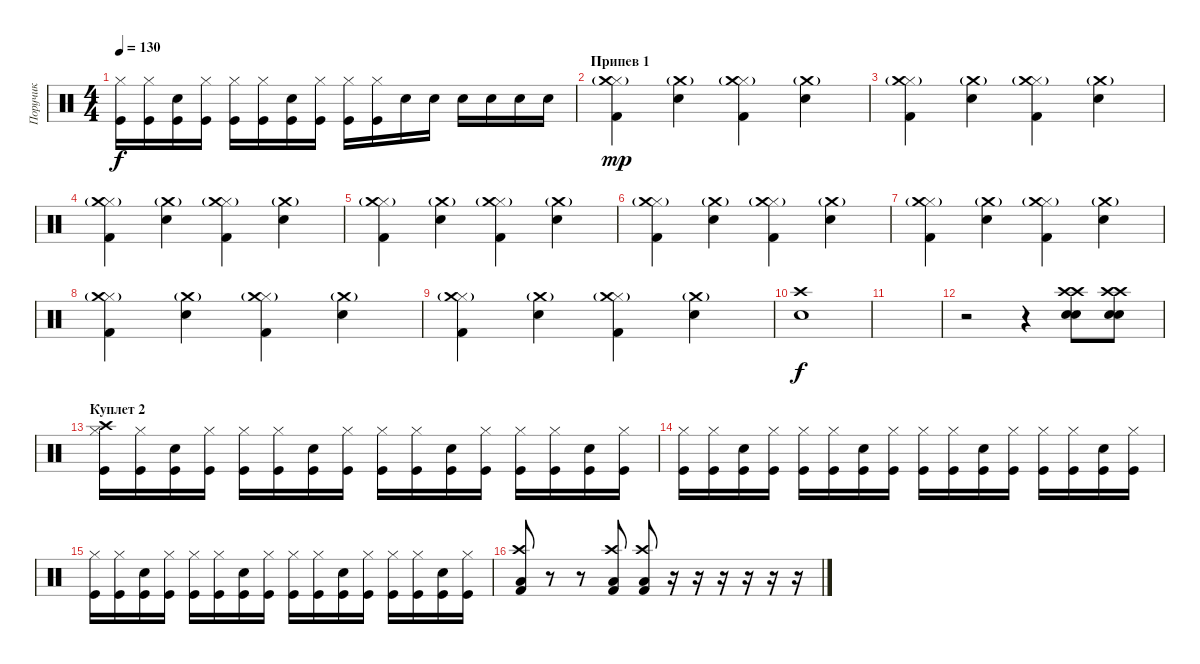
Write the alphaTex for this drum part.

\track ("Поручик" "Поручик") {instrument percussion}
\staff {score}
\articulation defaults
\ts (4 4)
\tempo 130
\clef neutral
\ks c
("Hi-Hat (closed)" "Kick (hit)").16{dy f} ("Hi-Hat (closed)" "Kick (hit)").16 ("Snare (hit) 2" "Kick (hit)").16 ("Hi-Hat (closed)" "Kick (hit)").16 ("Hi-Hat (closed)" "Kick (hit)").16 ("Hi-Hat (closed)" "Kick (hit)").16 ("Snare (hit) 2" "Kick (hit)").16 ("Hi-Hat (closed)" "Kick (hit)").16 ("Hi-Hat (closed)" "Kick (hit)").16 ("Hi-Hat (closed)" "Kick (hit)").16 "Snare (hit) 2".16 "Snare (hit) 2".16 "Snare (hit) 2".16 "Snare (hit) 2".16 "Snare (hit) 2".16 "Snare (hit) 2".16 |
\section ("" "Припев 1")
("Kick (hit) 2" "Hi-Hat (closed)" "Crash medium (hit)"{g}).4{dy mp} ("Snare (hit) 2" "Crash medium (hit)"{g}).4 ("Kick (hit) 2" "Hi-Hat (closed)" "Crash medium (hit)"{g}).4 ("Snare (hit) 2" "Crash medium (hit)"{g}).4 |
("Kick (hit) 2" "Hi-Hat (closed)" "Crash medium (hit)"{g}).4 ("Snare (hit) 2" "Crash medium (hit)"{g}).4 ("Kick (hit) 2" "Hi-Hat (closed)" "Crash medium (hit)"{g}).4 ("Snare (hit) 2" "Crash medium (hit)"{g}).4 |
("Kick (hit) 2" "Hi-Hat (closed)" "Crash medium (hit)"{g}).4 ("Snare (hit) 2" "Crash medium (hit)"{g}).4 ("Kick (hit) 2" "Hi-Hat (closed)" "Crash medium (hit)"{g}).4 ("Snare (hit) 2" "Crash medium (hit)"{g}).4 |
("Kick (hit) 2" "Hi-Hat (closed)" "Crash medium (hit)"{g}).4 ("Snare (hit) 2" "Crash medium (hit)"{g}).4 ("Kick (hit) 2" "Hi-Hat (closed)" "Crash medium (hit)"{g}).4 ("Snare (hit) 2" "Crash medium (hit)"{g}).4 |
("Kick (hit) 2" "Hi-Hat (closed)" "Crash medium (hit)"{g}).4 ("Snare (hit) 2" "Crash medium (hit)"{g}).4 ("Kick (hit) 2" "Hi-Hat (closed)" "Crash medium (hit)"{g}).4 ("Snare (hit) 2" "Crash medium (hit)"{g}).4 |
("Kick (hit) 2" "Hi-Hat (closed)" "Crash medium (hit)"{g}).4 ("Snare (hit) 2" "Crash medium (hit)"{g}).4 ("Kick (hit) 2" "Hi-Hat (closed)" "Crash medium (hit)"{g}).4 ("Snare (hit) 2" "Crash medium (hit)"{g}).4 |
("Kick (hit) 2" "Hi-Hat (closed)" "Crash medium (hit)"{g}).4 ("Snare (hit) 2" "Crash medium (hit)"{g}).4 ("Kick (hit) 2" "Hi-Hat (closed)" "Crash medium (hit)"{g}).4 ("Snare (hit) 2" "Crash medium (hit)"{g}).4 |
("Kick (hit) 2" "Hi-Hat (closed)" "Crash medium (hit)"{g}).4 ("Snare (hit) 2" "Crash medium (hit)"{g}).4 ("Kick (hit) 2" "Hi-Hat (closed)" "Crash medium (hit)"{g}).4 ("Snare (hit) 2" "Crash medium (hit)"{g}).4 |
("Crash high (hit)" "Snare (hit) 2").1{dy f} |
|
r.2 r.4 ("Crash high (hit)" "Crash high (hit)" "Snare (hit) 2" "Snare (hit) 2").8 ("Crash high (hit)" "Crash high (hit)" "Snare (hit) 2" "Snare (hit) 2").8 |
\section ("" "Куплет 2")
("Hi-Hat (closed)" "Kick (hit)" "Crash high (hit)").16 ("Hi-Hat (closed)" "Kick (hit)").16 ("Snare (hit) 2" "Kick (hit)").16 ("Hi-Hat (closed)" "Kick (hit)").16 ("Hi-Hat (closed)" "Kick (hit)").16 ("Hi-Hat (closed)" "Kick (hit)").16 ("Snare (hit) 2" "Kick (hit)").16 ("Hi-Hat (closed)" "Kick (hit)").16 ("Hi-Hat (closed)" "Kick (hit)").16 ("Hi-Hat (closed)" "Kick (hit)").16 ("Snare (hit) 2" "Kick (hit)").16 ("Hi-Hat (closed)" "Kick (hit)").16 ("Hi-Hat (closed)" "Kick (hit)").16 ("Hi-Hat (closed)" "Kick (hit)").16 ("Snare (hit) 2" "Kick (hit)").16 ("Hi-Hat (closed)" "Kick (hit)").16 |
("Hi-Hat (closed)" "Kick (hit)").16 ("Hi-Hat (closed)" "Kick (hit)").16 ("Snare (hit) 2" "Kick (hit)").16 ("Hi-Hat (closed)" "Kick (hit)").16 ("Hi-Hat (closed)" "Kick (hit)").16 ("Hi-Hat (closed)" "Kick (hit)").16 ("Snare (hit) 2" "Kick (hit)").16 ("Hi-Hat (closed)" "Kick (hit)").16 ("Hi-Hat (closed)" "Kick (hit)").16 ("Hi-Hat (closed)" "Kick (hit)").16 ("Snare (hit) 2" "Kick (hit)").16 ("Hi-Hat (closed)" "Kick (hit)").16 ("Hi-Hat (closed)" "Kick (hit)").16 ("Hi-Hat (closed)" "Kick (hit)").16 ("Snare (hit) 2" "Kick (hit)").16 ("Hi-Hat (closed)" "Kick (hit)").16 |
("Hi-Hat (closed)" "Kick (hit)").16 ("Hi-Hat (closed)" "Kick (hit)").16 ("Snare (hit) 2" "Kick (hit)").16 ("Hi-Hat (closed)" "Kick (hit)").16 ("Hi-Hat (closed)" "Kick (hit)").16 ("Hi-Hat (closed)" "Kick (hit)").16 ("Snare (hit) 2" "Kick (hit)").16 ("Hi-Hat (closed)" "Kick (hit)").16 ("Hi-Hat (closed)" "Kick (hit)").16 ("Hi-Hat (closed)" "Kick (hit)").16 ("Snare (hit) 2" "Kick (hit)").16 ("Hi-Hat (closed)" "Kick (hit)").16 ("Hi-Hat (closed)" "Kick (hit)").16 ("Hi-Hat (closed)" "Kick (hit)").16 ("Snare (hit) 2" "Kick (hit)").16 ("Hi-Hat (closed)" "Kick (hit)").16 |
("Low Tom (hit)" "Kick (hit) 2" "Crash high (hit)").8 r.8 r.8 ("Crash high (hit)" "Low Tom (hit)" "Kick (hit) 2").8 ("Crash high (hit)" "Low Tom (hit)" "Kick (hit) 2").8 r.16 r.16 r.16 r.16 r.16 r.16
